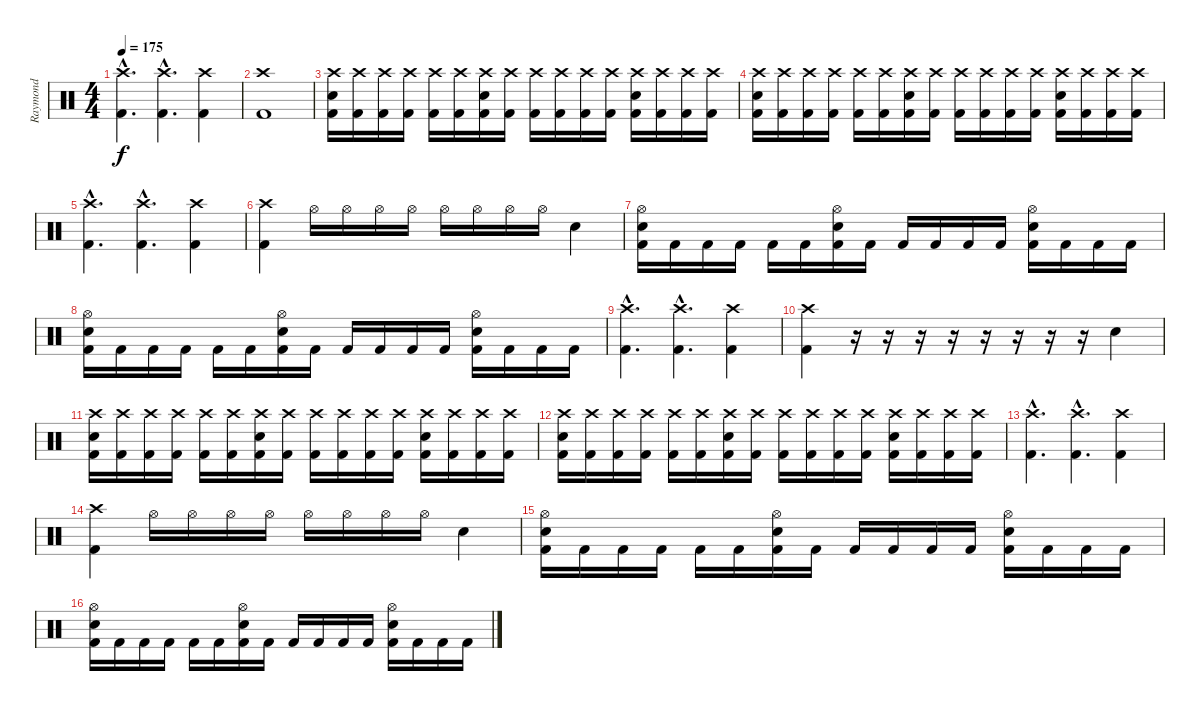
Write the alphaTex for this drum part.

\track ("Raymond" "Raymond") {instrument percussion}
\staff {score}
\articulation defaults
\ts (4 4)
\tempo 175
\clef neutral
\ks c
("Crash high (hit)"{hac} "Kick (hit) 2"{hac}).4{d dy f} ("Crash high (hit)"{hac} "Kick (hit) 2"{hac}).4{d} ("Crash high (hit)" "Kick (hit) 2").4 |
("Crash high (hit)" "Kick (hit) 2").1 |
("Crash high (hit)" "Electric Snare (hit)" "Kick (hit) 2").16 ("Crash high (hit)" "Kick (hit) 2").16 ("Crash high (hit)" "Kick (hit) 2").16 ("Crash high (hit)" "Kick (hit) 2").16 ("Crash high (hit)" "Kick (hit) 2").16 ("Crash high (hit)" "Kick (hit) 2").16 ("Crash high (hit)" "Electric Snare (hit)" "Kick (hit) 2").16 ("Crash high (hit)" "Kick (hit) 2").16 ("Crash high (hit)" "Kick (hit) 2").16 ("Crash high (hit)" "Kick (hit) 2").16 ("Crash high (hit)" "Kick (hit) 2").16 ("Crash high (hit)" "Kick (hit) 2").16 ("Crash high (hit)" "Electric Snare (hit)" "Kick (hit) 2").16 ("Crash high (hit)" "Kick (hit) 2").16 ("Crash high (hit)" "Kick (hit) 2").16 ("Crash high (hit)" "Kick (hit) 2").16 |
("Crash high (hit)" "Electric Snare (hit)" "Kick (hit) 2").16 ("Crash high (hit)" "Kick (hit) 2").16 ("Crash high (hit)" "Kick (hit) 2").16 ("Crash high (hit)" "Kick (hit) 2").16 ("Crash high (hit)" "Kick (hit) 2").16 ("Crash high (hit)" "Kick (hit) 2").16 ("Crash high (hit)" "Electric Snare (hit)" "Kick (hit) 2").16 ("Crash high (hit)" "Kick (hit) 2").16 ("Crash high (hit)" "Kick (hit) 2").16 ("Crash high (hit)" "Kick (hit) 2").16 ("Crash high (hit)" "Kick (hit) 2").16 ("Crash high (hit)" "Kick (hit) 2").16 ("Crash high (hit)" "Electric Snare (hit)" "Kick (hit) 2").16 ("Crash high (hit)" "Kick (hit) 2").16 ("Crash high (hit)" "Kick (hit) 2").16 ("Crash high (hit)" "Kick (hit) 2").16 |
("Crash high (hit)"{hac} "Kick (hit) 2"{hac}).4{d} ("Crash high (hit)"{hac} "Kick (hit) 2"{hac}).4{d} ("Crash high (hit)" "Kick (hit) 2").4 |
("Crash high (hit)" "Kick (hit) 2").4 "Hi-Hat (open)".16 "Hi-Hat (open)".16 "Hi-Hat (open)".16 "Hi-Hat (open)".16 "Hi-Hat (open)".16 "Hi-Hat (open)".16 "Hi-Hat (open)".16 "Hi-Hat (open)".16 "Electric Snare (hit)".4 |
("Hi-Hat (open)" "Electric Snare (hit)" "Kick (hit) 2").16 "Kick (hit) 2".16 "Kick (hit) 2".16 "Kick (hit) 2".16 "Kick (hit) 2".16 "Kick (hit) 2".16 ("Hi-Hat (open)" "Electric Snare (hit)" "Kick (hit) 2").16 "Kick (hit) 2".16 "Kick (hit) 2".16 "Kick (hit) 2".16 "Kick (hit) 2".16 "Kick (hit) 2".16 ("Hi-Hat (open)" "Electric Snare (hit)" "Kick (hit) 2").16 "Kick (hit) 2".16 "Kick (hit) 2".16 "Kick (hit) 2".16 |
("Hi-Hat (open)" "Electric Snare (hit)" "Kick (hit) 2").16 "Kick (hit) 2".16 "Kick (hit) 2".16 "Kick (hit) 2".16 "Kick (hit) 2".16 "Kick (hit) 2".16 ("Hi-Hat (open)" "Electric Snare (hit)" "Kick (hit) 2").16 "Kick (hit) 2".16 "Kick (hit) 2".16 "Kick (hit) 2".16 "Kick (hit) 2".16 "Kick (hit) 2".16 ("Hi-Hat (open)" "Electric Snare (hit)" "Kick (hit) 2").16 "Kick (hit) 2".16 "Kick (hit) 2".16 "Kick (hit) 2".16 |
("Crash high (hit)"{hac} "Kick (hit) 2"{hac}).4{d} ("Crash high (hit)"{hac} "Kick (hit) 2"{hac}).4{d} ("Crash high (hit)" "Kick (hit) 2").4 |
("Crash high (hit)" "Kick (hit) 2").4 r.16 r.16 r.16 r.16 r.16 r.16 r.16 r.16 "Electric Snare (hit)".4 |
("Crash high (hit)" "Electric Snare (hit)" "Kick (hit) 2").16 ("Crash high (hit)" "Kick (hit) 2").16 ("Crash high (hit)" "Kick (hit) 2").16 ("Crash high (hit)" "Kick (hit) 2").16 ("Crash high (hit)" "Kick (hit) 2").16 ("Crash high (hit)" "Kick (hit) 2").16 ("Crash high (hit)" "Electric Snare (hit)" "Kick (hit) 2").16 ("Crash high (hit)" "Kick (hit) 2").16 ("Crash high (hit)" "Kick (hit) 2").16 ("Crash high (hit)" "Kick (hit) 2").16 ("Crash high (hit)" "Kick (hit) 2").16 ("Crash high (hit)" "Kick (hit) 2").16 ("Crash high (hit)" "Electric Snare (hit)" "Kick (hit) 2").16 ("Crash high (hit)" "Kick (hit) 2").16 ("Crash high (hit)" "Kick (hit) 2").16 ("Crash high (hit)" "Kick (hit) 2").16 |
("Crash high (hit)" "Electric Snare (hit)" "Kick (hit) 2").16 ("Crash high (hit)" "Kick (hit) 2").16 ("Crash high (hit)" "Kick (hit) 2").16 ("Crash high (hit)" "Kick (hit) 2").16 ("Crash high (hit)" "Kick (hit) 2").16 ("Crash high (hit)" "Kick (hit) 2").16 ("Crash high (hit)" "Electric Snare (hit)" "Kick (hit) 2").16 ("Crash high (hit)" "Kick (hit) 2").16 ("Crash high (hit)" "Kick (hit) 2").16 ("Crash high (hit)" "Kick (hit) 2").16 ("Crash high (hit)" "Kick (hit) 2").16 ("Crash high (hit)" "Kick (hit) 2").16 ("Crash high (hit)" "Electric Snare (hit)" "Kick (hit) 2").16 ("Crash high (hit)" "Kick (hit) 2").16 ("Crash high (hit)" "Kick (hit) 2").16 ("Crash high (hit)" "Kick (hit) 2").16 |
("Crash high (hit)"{hac} "Kick (hit) 2"{hac}).4{d} ("Crash high (hit)"{hac} "Kick (hit) 2"{hac}).4{d} ("Crash high (hit)" "Kick (hit) 2").4 |
("Crash high (hit)" "Kick (hit) 2").4 "Hi-Hat (open)".16 "Hi-Hat (open)".16 "Hi-Hat (open)".16 "Hi-Hat (open)".16 "Hi-Hat (open)".16 "Hi-Hat (open)".16 "Hi-Hat (open)".16 "Hi-Hat (open)".16 "Electric Snare (hit)".4 |
("Hi-Hat (open)" "Electric Snare (hit)" "Kick (hit) 2").16 "Kick (hit) 2".16 "Kick (hit) 2".16 "Kick (hit) 2".16 "Kick (hit) 2".16 "Kick (hit) 2".16 ("Hi-Hat (open)" "Electric Snare (hit)" "Kick (hit) 2").16 "Kick (hit) 2".16 "Kick (hit) 2".16 "Kick (hit) 2".16 "Kick (hit) 2".16 "Kick (hit) 2".16 ("Hi-Hat (open)" "Electric Snare (hit)" "Kick (hit) 2").16 "Kick (hit) 2".16 "Kick (hit) 2".16 "Kick (hit) 2".16 |
("Hi-Hat (open)" "Electric Snare (hit)" "Kick (hit) 2").16 "Kick (hit) 2".16 "Kick (hit) 2".16 "Kick (hit) 2".16 "Kick (hit) 2".16 "Kick (hit) 2".16 ("Hi-Hat (open)" "Electric Snare (hit)" "Kick (hit) 2").16 "Kick (hit) 2".16 "Kick (hit) 2".16 "Kick (hit) 2".16 "Kick (hit) 2".16 "Kick (hit) 2".16 ("Hi-Hat (open)" "Electric Snare (hit)" "Kick (hit) 2").16 "Kick (hit) 2".16 "Kick (hit) 2".16 "Kick (hit) 2".16
